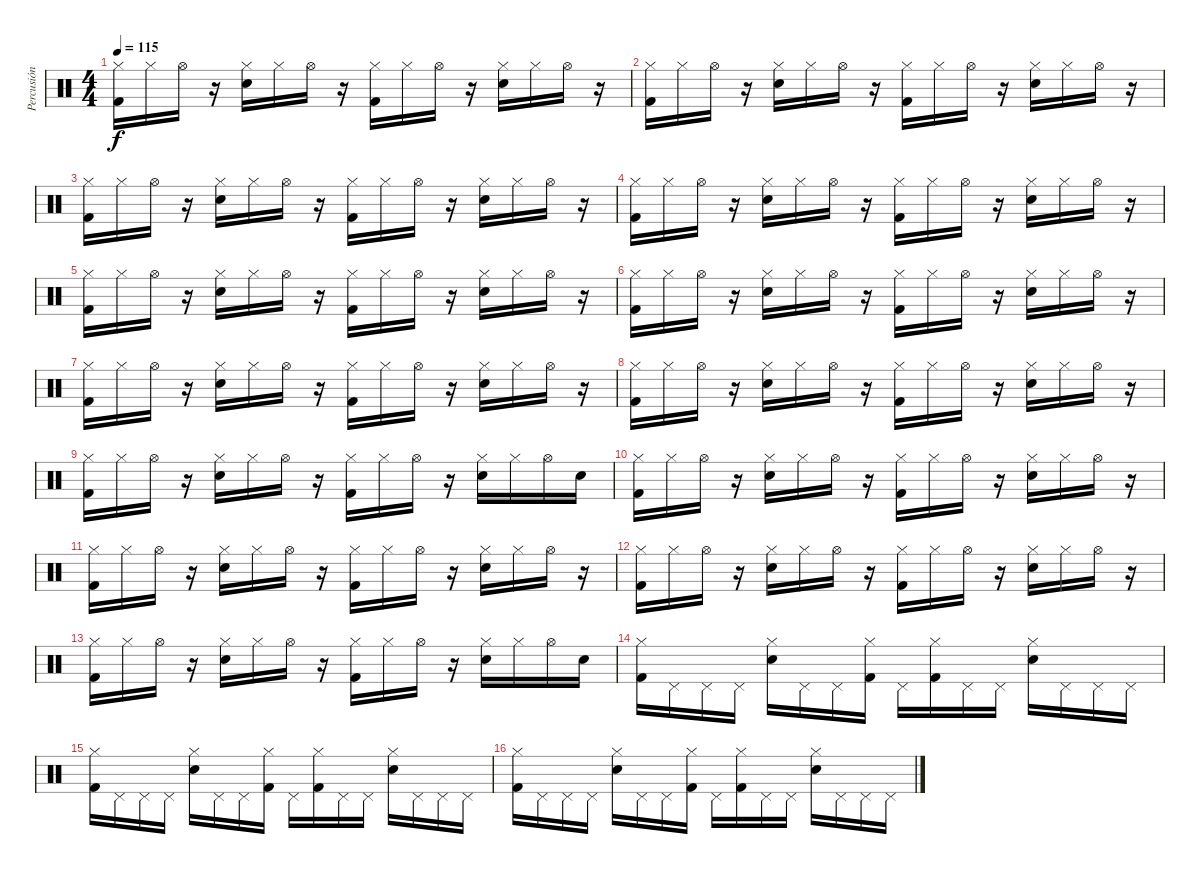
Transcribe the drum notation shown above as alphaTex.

\track ("Percusión" "Percusión") {instrument percussion}
\staff {score}
\articulation defaults
\ts (4 4)
\tempo 115
\clef neutral
\ks c
("Hi-Hat (closed)" "Kick (hit) 2").16{dy f} "Hi-Hat (closed)".16 "Hi-Hat (open)".16 r.16 ("Hi-Hat (closed)" "Snare (hit) 2").16 "Hi-Hat (closed)".16 "Hi-Hat (open)".16 r.16 ("Hi-Hat (closed)" "Kick (hit) 2").16 "Hi-Hat (closed)".16 "Hi-Hat (open)".16 r.16 ("Hi-Hat (closed)" "Snare (hit) 2").16 "Hi-Hat (closed)".16 "Hi-Hat (open)".16 r.16 |
("Hi-Hat (closed)" "Kick (hit) 2").16 "Hi-Hat (closed)".16 "Hi-Hat (open)".16 r.16 ("Hi-Hat (closed)" "Snare (hit) 2").16 "Hi-Hat (closed)".16 "Hi-Hat (open)".16 r.16 ("Hi-Hat (closed)" "Kick (hit) 2").16 "Hi-Hat (closed)".16 "Hi-Hat (open)".16 r.16 ("Hi-Hat (closed)" "Snare (hit) 2").16 "Hi-Hat (closed)".16 "Hi-Hat (open)".16 r.16 |
("Hi-Hat (closed)" "Kick (hit) 2").16 "Hi-Hat (closed)".16 "Hi-Hat (open)".16 r.16 ("Hi-Hat (closed)" "Snare (hit) 2").16 "Hi-Hat (closed)".16 "Hi-Hat (open)".16 r.16 ("Hi-Hat (closed)" "Kick (hit) 2").16 "Hi-Hat (closed)".16 "Hi-Hat (open)".16 r.16 ("Hi-Hat (closed)" "Snare (hit) 2").16 "Hi-Hat (closed)".16 "Hi-Hat (open)".16 r.16 |
("Hi-Hat (closed)" "Kick (hit) 2").16 "Hi-Hat (closed)".16 "Hi-Hat (open)".16 r.16 ("Hi-Hat (closed)" "Snare (hit) 2").16 "Hi-Hat (closed)".16 "Hi-Hat (open)".16 r.16 ("Hi-Hat (closed)" "Kick (hit) 2").16 "Hi-Hat (closed)".16 "Hi-Hat (open)".16 r.16 ("Hi-Hat (closed)" "Snare (hit) 2").16 "Hi-Hat (closed)".16 "Hi-Hat (open)".16 r.16 |
("Hi-Hat (closed)" "Kick (hit) 2").16 "Hi-Hat (closed)".16 "Hi-Hat (open)".16 r.16 ("Hi-Hat (closed)" "Snare (hit) 2").16 "Hi-Hat (closed)".16 "Hi-Hat (open)".16 r.16 ("Hi-Hat (closed)" "Kick (hit) 2").16 "Hi-Hat (closed)".16 "Hi-Hat (open)".16 r.16 ("Hi-Hat (closed)" "Snare (hit) 2").16 "Hi-Hat (closed)".16 "Hi-Hat (open)".16 r.16 |
("Hi-Hat (closed)" "Kick (hit) 2").16 "Hi-Hat (closed)".16 "Hi-Hat (open)".16 r.16 ("Hi-Hat (closed)" "Snare (hit) 2").16 "Hi-Hat (closed)".16 "Hi-Hat (open)".16 r.16 ("Hi-Hat (closed)" "Kick (hit) 2").16 "Hi-Hat (closed)".16 "Hi-Hat (open)".16 r.16 ("Hi-Hat (closed)" "Snare (hit) 2").16 "Hi-Hat (closed)".16 "Hi-Hat (open)".16 r.16 |
("Hi-Hat (closed)" "Kick (hit) 2").16 "Hi-Hat (closed)".16 "Hi-Hat (open)".16 r.16 ("Hi-Hat (closed)" "Snare (hit) 2").16 "Hi-Hat (closed)".16 "Hi-Hat (open)".16 r.16 ("Hi-Hat (closed)" "Kick (hit) 2").16 "Hi-Hat (closed)".16 "Hi-Hat (open)".16 r.16 ("Hi-Hat (closed)" "Snare (hit) 2").16 "Hi-Hat (closed)".16 "Hi-Hat (open)".16 r.16 |
("Hi-Hat (closed)" "Kick (hit) 2").16 "Hi-Hat (closed)".16 "Hi-Hat (open)".16 r.16 ("Hi-Hat (closed)" "Snare (hit) 2").16 "Hi-Hat (closed)".16 "Hi-Hat (open)".16 r.16 ("Hi-Hat (closed)" "Kick (hit) 2").16 "Hi-Hat (closed)".16 "Hi-Hat (open)".16 r.16 ("Hi-Hat (closed)" "Snare (hit) 2").16 "Hi-Hat (closed)".16 "Hi-Hat (open)".16 r.16 |
("Hi-Hat (closed)" "Kick (hit) 2").16 "Hi-Hat (closed)".16 "Hi-Hat (open)".16 r.16 ("Hi-Hat (closed)" "Snare (hit) 2").16 "Hi-Hat (closed)".16 "Hi-Hat (open)".16 r.16 ("Hi-Hat (closed)" "Kick (hit) 2").16 "Hi-Hat (closed)".16 "Hi-Hat (open)".16 r.16 ("Hi-Hat (closed)" "Snare (hit) 2").16 "Hi-Hat (closed)".16 "Hi-Hat (open)".16 "Snare (hit) 2".16 |
("Hi-Hat (closed)" "Kick (hit) 2").16 "Hi-Hat (closed)".16 "Hi-Hat (open)".16 r.16 ("Hi-Hat (closed)" "Snare (hit) 2").16 "Hi-Hat (closed)".16 "Hi-Hat (open)".16 r.16 ("Hi-Hat (closed)" "Kick (hit) 2").16 "Hi-Hat (closed)".16 "Hi-Hat (open)".16 r.16 ("Hi-Hat (closed)" "Snare (hit) 2").16 "Hi-Hat (closed)".16 "Hi-Hat (open)".16 r.16 |
("Hi-Hat (closed)" "Kick (hit) 2").16 "Hi-Hat (closed)".16 "Hi-Hat (open)".16 r.16 ("Hi-Hat (closed)" "Snare (hit) 2").16 "Hi-Hat (closed)".16 "Hi-Hat (open)".16 r.16 ("Hi-Hat (closed)" "Kick (hit) 2").16 "Hi-Hat (closed)".16 "Hi-Hat (open)".16 r.16 ("Hi-Hat (closed)" "Snare (hit) 2").16 "Hi-Hat (closed)".16 "Hi-Hat (open)".16 r.16 |
("Hi-Hat (closed)" "Kick (hit) 2").16 "Hi-Hat (closed)".16 "Hi-Hat (open)".16 r.16 ("Hi-Hat (closed)" "Snare (hit) 2").16 "Hi-Hat (closed)".16 "Hi-Hat (open)".16 r.16 ("Hi-Hat (closed)" "Kick (hit) 2").16 "Hi-Hat (closed)".16 "Hi-Hat (open)".16 r.16 ("Hi-Hat (closed)" "Snare (hit) 2").16 "Hi-Hat (closed)".16 "Hi-Hat (open)".16 r.16 |
("Hi-Hat (closed)" "Kick (hit) 2").16 "Hi-Hat (closed)".16 "Hi-Hat (open)".16 r.16 ("Hi-Hat (closed)" "Snare (hit) 2").16 "Hi-Hat (closed)".16 "Hi-Hat (open)".16 r.16 ("Hi-Hat (closed)" "Kick (hit) 2").16 "Hi-Hat (closed)".16 "Hi-Hat (open)".16 r.16 ("Hi-Hat (closed)" "Snare (hit) 2").16 "Hi-Hat (closed)".16 "Hi-Hat (open)".16 "Snare (hit) 2".16 |
("Hi-Hat (closed)" "Kick (hit) 2").16 "Pedal Hi-Hat (hit)".16 "Pedal Hi-Hat (hit)".16 "Pedal Hi-Hat (hit)".16 ("Hi-Hat (closed)" "Snare (hit) 2").16 "Pedal Hi-Hat (hit)".16 "Pedal Hi-Hat (hit)".16 ("Hi-Hat (closed)" "Kick (hit) 2").16 "Pedal Hi-Hat (hit)".16 ("Hi-Hat (closed)" "Kick (hit) 2").16 "Pedal Hi-Hat (hit)".16 "Pedal Hi-Hat (hit)".16 ("Hi-Hat (closed)" "Snare (hit) 2").16 "Pedal Hi-Hat (hit)".16 "Pedal Hi-Hat (hit)".16 "Pedal Hi-Hat (hit)".16 |
("Hi-Hat (closed)" "Kick (hit) 2").16 "Pedal Hi-Hat (hit)".16 "Pedal Hi-Hat (hit)".16 "Pedal Hi-Hat (hit)".16 ("Hi-Hat (closed)" "Snare (hit) 2").16 "Pedal Hi-Hat (hit)".16 "Pedal Hi-Hat (hit)".16 ("Hi-Hat (closed)" "Kick (hit) 2").16 "Pedal Hi-Hat (hit)".16 ("Hi-Hat (closed)" "Kick (hit) 2").16 "Pedal Hi-Hat (hit)".16 "Pedal Hi-Hat (hit)".16 ("Hi-Hat (closed)" "Snare (hit) 2").16 "Pedal Hi-Hat (hit)".16 "Pedal Hi-Hat (hit)".16 "Pedal Hi-Hat (hit)".16 |
("Hi-Hat (closed)" "Kick (hit) 2").16 "Pedal Hi-Hat (hit)".16 "Pedal Hi-Hat (hit)".16 "Pedal Hi-Hat (hit)".16 ("Hi-Hat (closed)" "Snare (hit) 2").16 "Pedal Hi-Hat (hit)".16 "Pedal Hi-Hat (hit)".16 ("Hi-Hat (closed)" "Kick (hit) 2").16 "Pedal Hi-Hat (hit)".16 ("Hi-Hat (closed)" "Kick (hit) 2").16 "Pedal Hi-Hat (hit)".16 "Pedal Hi-Hat (hit)".16 ("Hi-Hat (closed)" "Snare (hit) 2").16 "Pedal Hi-Hat (hit)".16 "Pedal Hi-Hat (hit)".16 "Pedal Hi-Hat (hit)".16
